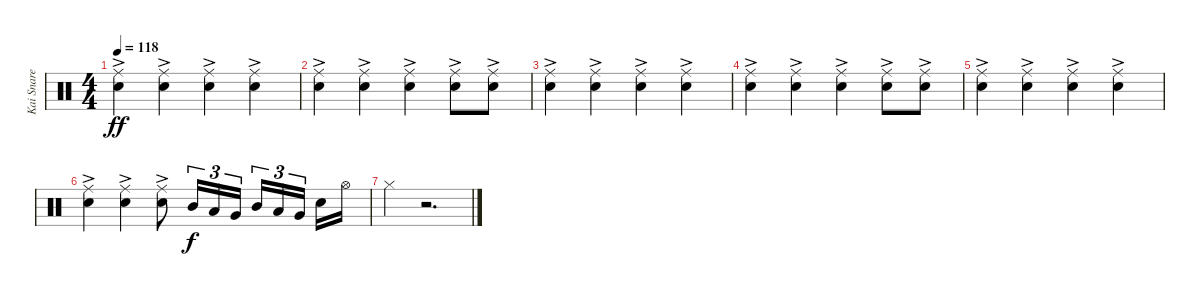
\track ("Kai Snare" "Kai Snare") {instrument percussion}
\staff {score}
\articulation defaults
\ts (4 4)
\tempo 118
\clef neutral
\ks c
("Ride (middle)"{ac} "Snare (hit) 2").4{dy ff} ("Ride (middle)"{ac} "Snare (hit) 2").4 ("Ride (middle)"{ac} "Snare (hit) 2").4 ("Ride (middle)"{ac} "Snare (hit) 2").4 |
("Ride (middle)"{ac} "Snare (hit) 2").4 ("Ride (middle)"{ac} "Snare (hit) 2").4 ("Ride (middle)"{ac} "Snare (hit) 2").4 ("Ride (middle)"{ac} "Snare (hit) 2").8 ("Ride (middle)"{ac} "Snare (hit) 2").8 |
("Ride (middle)"{ac} "Snare (hit) 2").4 ("Ride (middle)"{ac} "Snare (hit) 2").4 ("Ride (middle)"{ac} "Snare (hit) 2").4 ("Ride (middle)"{ac} "Snare (hit) 2").4 |
("Ride (middle)"{ac} "Snare (hit) 2").4 ("Ride (middle)"{ac} "Snare (hit) 2").4 ("Ride (middle)"{ac} "Snare (hit) 2").4 ("Ride (middle)"{ac} "Snare (hit) 2").8 ("Ride (middle)"{ac} "Snare (hit) 2").8 |
("Ride (middle)"{ac} "Snare (hit) 2").4 ("Ride (middle)"{ac} "Snare (hit) 2").4 ("Ride (middle)"{ac} "Snare (hit) 2").4 ("Ride (middle)"{ac} "Snare (hit) 2").4 |
("Ride (middle)"{ac} "Snare (hit) 2").4 ("Ride (middle)"{ac} "Snare (hit) 2").4 ("Ride (middle)"{ac} "Snare (hit) 2").8 "Mid Tom (hit)".16{tu (3 2) dy f} "Low Tom (hit)".16{tu (3 2)} "Very Low Tom (hit)".16{tu (3 2)} "Mid Tom (hit)".16{tu (3 2)} "Low Tom (hit)".16{tu (3 2)} "Very Low Tom (hit)".16{tu (3 2) beam splitsecondary} "Snare (hit) 2".16 "Hi-Hat (open)".16 |
"Hi-Hat (closed)".4 r.2{d}
